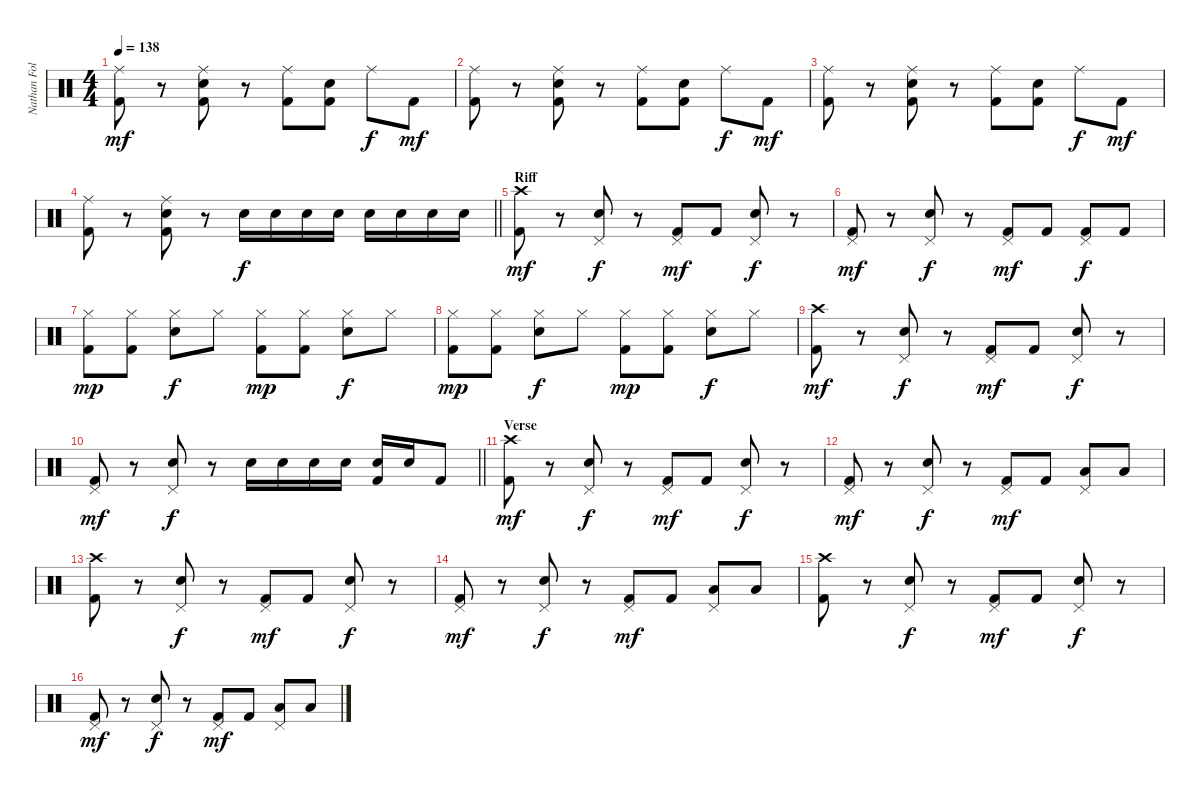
\track ("Nathan Followill" "Nathan Fol") {instrument percussion}
\staff {score}
\articulation defaults
\ts (4 4)
\tempo 138
\clef neutral
\ks c
("Ride (middle)" "Kick (hit) 2").8{dy mf} r.8 ("Ride (middle)" "Snare (hit) 2" "Kick (hit) 2").8 r.8 ("Ride (middle)" "Kick (hit) 2").8 ("Snare (hit) 2" "Kick (hit) 2").8 "Ride (middle)".8{dy f} "Kick (hit) 2".8{dy mf} |
("Ride (middle)" "Kick (hit) 2").8 r.8 ("Ride (middle)" "Snare (hit) 2" "Kick (hit) 2").8 r.8 ("Ride (middle)" "Kick (hit) 2").8 ("Snare (hit) 2" "Kick (hit) 2").8 "Ride (middle)".8{dy f} "Kick (hit) 2".8{dy mf} |
("Ride (middle)" "Kick (hit) 2").8 r.8 ("Ride (middle)" "Snare (hit) 2" "Kick (hit) 2").8 r.8 ("Ride (middle)" "Kick (hit) 2").8 ("Snare (hit) 2" "Kick (hit) 2").8 "Ride (middle)".8{dy f} "Kick (hit) 2".8{dy mf} |
\barLineRight lightlight
("Ride (middle)" "Kick (hit) 2").8 r.8 ("Ride (middle)" "Snare (hit) 2" "Kick (hit) 2").8 r.8 "Snare (hit) 2".16{dy f} "Snare (hit) 2".16 "Snare (hit) 2".16 "Snare (hit) 2".16 "Snare (hit) 2".16 "Snare (hit) 2".16 "Snare (hit) 2".16 "Snare (hit) 2".16 |
\section ("" "Riff")
("Crash high (hit)" "Kick (hit) 2").8{dy mf} r.8 ("Pedal Hi-Hat (hit)" "Snare (hit) 2").8{dy f} r.8 ("Pedal Hi-Hat (hit)" "Kick (hit) 2").8{dy mf} "Kick (hit) 2".8 ("Pedal Hi-Hat (hit)" "Snare (hit) 2").8{dy f} r.8 |
("Pedal Hi-Hat (hit)" "Kick (hit) 2").8{dy mf} r.8 ("Pedal Hi-Hat (hit)" "Snare (hit) 2").8{dy f} r.8 ("Pedal Hi-Hat (hit)" "Kick (hit) 2").8{dy mf} "Kick (hit) 2".8 ("Pedal Hi-Hat (hit)" "Kick (hit) 2").8{dy f} "Kick (hit) 2".8 |
("Hi-Hat (closed)" "Kick (hit) 2").8{dy mp} ("Hi-Hat (closed)" "Kick (hit) 2").8 ("Hi-Hat (closed)" "Snare (hit) 2").8{dy f} "Hi-Hat (closed)".8 ("Hi-Hat (closed)" "Kick (hit) 2").8{dy mp} ("Hi-Hat (closed)" "Kick (hit) 2").8 ("Hi-Hat (closed)" "Snare (hit) 2").8{dy f} "Hi-Hat (closed)".8 |
("Hi-Hat (closed)" "Kick (hit) 2").8{dy mp} ("Hi-Hat (closed)" "Kick (hit) 2").8 ("Hi-Hat (closed)" "Snare (hit) 2").8{dy f} "Hi-Hat (closed)".8 ("Hi-Hat (closed)" "Kick (hit) 2").8{dy mp} ("Hi-Hat (closed)" "Kick (hit) 2").8 ("Hi-Hat (closed)" "Snare (hit) 2").8{dy f} "Hi-Hat (closed)".8 |
("Crash high (hit)" "Kick (hit) 2").8{dy mf} r.8 ("Pedal Hi-Hat (hit)" "Snare (hit) 2").8{dy f} r.8 ("Pedal Hi-Hat (hit)" "Kick (hit) 2").8{dy mf} "Kick (hit) 2".8 ("Pedal Hi-Hat (hit)" "Snare (hit) 2").8{dy f} r.8 |
\barLineRight lightlight
("Pedal Hi-Hat (hit)" "Kick (hit) 2").8{dy mf} r.8 ("Pedal Hi-Hat (hit)" "Snare (hit) 2").8{dy f} r.8 "Snare (hit) 2".16 "Snare (hit) 2".16 "Snare (hit) 2".16 "Snare (hit) 2".16 ("Snare (hit) 2" "Kick (hit) 2").16 "Snare (hit) 2".16 "Kick (hit) 2".8 |
\section ("" "Verse ")
("Crash high (hit)" "Kick (hit) 2").8{dy mf} r.8 ("Pedal Hi-Hat (hit)" "Snare (hit) 2").8{dy f} r.8 ("Pedal Hi-Hat (hit)" "Kick (hit) 2").8{dy mf} "Kick (hit) 2".8 ("Pedal Hi-Hat (hit)" "Snare (hit) 2").8{dy f} r.8 |
("Pedal Hi-Hat (hit)" "Kick (hit) 2").8{dy mf} r.8 ("Pedal Hi-Hat (hit)" "Snare (hit) 2").8{dy f} r.8 ("Pedal Hi-Hat (hit)" "Kick (hit) 2").8{dy mf} "Kick (hit) 2".8 ("Pedal Hi-Hat (hit)" "Low Floor Tom (hit)").8 "Low Floor Tom (hit)".8 |
("Crash high (hit)" "Kick (hit) 2").8 r.8 ("Pedal Hi-Hat (hit)" "Snare (hit) 2").8{dy f} r.8 ("Pedal Hi-Hat (hit)" "Kick (hit) 2").8{dy mf} "Kick (hit) 2".8 ("Pedal Hi-Hat (hit)" "Snare (hit) 2").8{dy f} r.8 |
("Pedal Hi-Hat (hit)" "Kick (hit) 2").8{dy mf} r.8 ("Pedal Hi-Hat (hit)" "Snare (hit) 2").8{dy f} r.8 ("Pedal Hi-Hat (hit)" "Kick (hit) 2").8{dy mf} "Kick (hit) 2".8 ("Pedal Hi-Hat (hit)" "Low Floor Tom (hit)").8 "Low Floor Tom (hit)".8 |
("Crash high (hit)" "Kick (hit) 2").8 r.8 ("Pedal Hi-Hat (hit)" "Snare (hit) 2").8{dy f} r.8 ("Pedal Hi-Hat (hit)" "Kick (hit) 2").8{dy mf} "Kick (hit) 2".8 ("Pedal Hi-Hat (hit)" "Snare (hit) 2").8{dy f} r.8 |
("Pedal Hi-Hat (hit)" "Kick (hit) 2").8{dy mf} r.8 ("Pedal Hi-Hat (hit)" "Snare (hit) 2").8{dy f} r.8 ("Pedal Hi-Hat (hit)" "Kick (hit) 2").8{dy mf} "Kick (hit) 2".8 ("Pedal Hi-Hat (hit)" "Low Floor Tom (hit)").8 "Low Floor Tom (hit)".8
